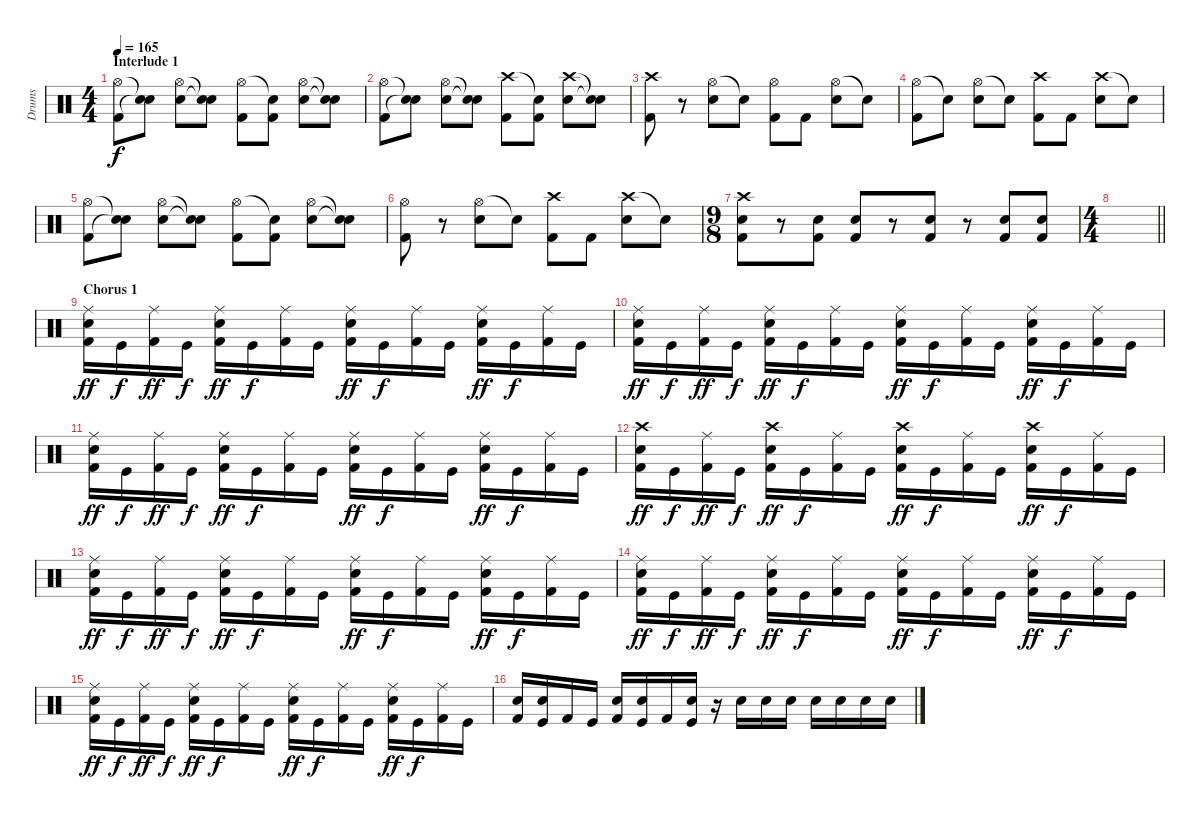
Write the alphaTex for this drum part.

\track ("Drums" "Drums") {instrument percussion}
\staff {score}
\articulation defaults
\ts (4 4)
\section ("" "Interlude 1")
\tempo 165
\clef neutral
\ks c
("Hi-Hat (open)" "Kick (hit) 2").8{dy f} ("Snare (hit)"{t} "Snare (hit)"{t}).8 ("Hi-Hat (open)" "Snare (hit) 2").8 ("Snare (hit)"{t} "Snare (hit)"{t}).8 ("Hi-Hat (open)" "Kick (hit) 2").8 ("Snare (hit)"{t} "Kick (hit) 2").8 ("Hi-Hat (open)" "Snare (hit) 2").8 ("Snare (hit)"{t} "Snare (hit)"{t}).8 |
("Hi-Hat (open)" "Kick (hit) 2").8 ("Snare (hit)"{t} "Snare (hit)"{t}).8 ("Hi-Hat (open)" "Snare (hit) 2").8 ("Snare (hit)"{t} "Snare (hit)"{t}).8 ("Crash high (hit)" "Kick (hit) 2").8 ("Snare (hit)"{t} "Kick (hit) 2").8 ("Crash high (hit)" "Snare (hit) 2").8 ("Snare (hit)"{t} "Snare (hit)"{t}).8 |
("Crash high (hit)" "Kick (hit) 2").8 r.8 ("Hi-Hat (open)" "Snare (hit) 2").8 "Snare (hit)"{t}.8 ("Hi-Hat (open)" "Kick (hit) 2").8 "Kick (hit) 2".8 ("Hi-Hat (open)" "Snare (hit) 2").8 "Snare (hit)"{t}.8 |
("Hi-Hat (open)" "Kick (hit) 2").8 "Snare (hit)"{t}.8 ("Hi-Hat (open)" "Snare (hit) 2").8 "Snare (hit)"{t}.8 ("Crash high (hit)" "Kick (hit) 2").8 "Kick (hit) 2".8 ("Crash high (hit)" "Snare (hit) 2").8 "Snare (hit)"{t}.8 |
("Hi-Hat (open)" "Kick (hit) 2").8 ("Snare (hit)"{t} "Snare (hit)"{t}).8 ("Hi-Hat (open)" "Snare (hit) 2").8 ("Snare (hit)"{t} "Snare (hit)"{t}).8 ("Hi-Hat (open)" "Kick (hit) 2").8 ("Snare (hit)"{t} "Kick (hit) 2").8 ("Hi-Hat (open)" "Snare (hit) 2").8 ("Snare (hit)"{t} "Snare (hit)"{t}).8 |
("Hi-Hat (open)" "Kick (hit) 2").8 r.8 ("Hi-Hat (open)" "Snare (hit) 2").8 "Snare (hit)"{t}.8 ("Crash high (hit)" "Kick (hit) 2").8 "Kick (hit) 2".8 ("Crash high (hit)" "Snare (hit) 2").8 "Snare (hit)"{t}.8 |
\ts (9 8)
("Crash high (hit)" "Snare (hit) 2" "Kick (hit) 2").8 r.8 ("Snare (hit) 2" "Kick (hit) 2").8 ("Snare (hit) 2" "Kick (hit) 2").8 r.8 ("Snare (hit) 2" "Kick (hit) 2").8 r.8 ("Snare (hit) 2" "Kick (hit) 2").8 ("Snare (hit) 2" "Kick (hit) 2").8 |
\ts (4 4)
\barLineRight lightlight
|
\section ("" "Chorus 1")
("Ride (middle)" "Snare (hit) 2" "Kick (hit) 2").16{dy ff} "Kick (hit)".16{dy f} ("Ride (middle)" "Kick (hit) 2").16{dy ff} "Kick (hit)".16{dy f} ("Ride (middle)" "Snare (hit) 2" "Kick (hit) 2").16{dy ff} "Kick (hit)".16{dy f} ("Ride (middle)" "Kick (hit) 2").16 "Kick (hit)".16 ("Ride (middle)" "Snare (hit) 2" "Kick (hit) 2").16{dy ff} "Kick (hit)".16{dy f} ("Ride (middle)" "Kick (hit) 2").16 "Kick (hit)".16 ("Ride (middle)" "Snare (hit) 2" "Kick (hit) 2").16{dy ff} "Kick (hit)".16{dy f} ("Ride (middle)" "Kick (hit) 2").16 "Kick (hit)".16 |
("Ride (middle)" "Snare (hit) 2" "Kick (hit) 2").16{dy ff} "Kick (hit)".16{dy f} ("Ride (middle)" "Kick (hit) 2").16{dy ff} "Kick (hit)".16{dy f} ("Ride (middle)" "Snare (hit) 2" "Kick (hit) 2").16{dy ff} "Kick (hit)".16{dy f} ("Ride (middle)" "Kick (hit) 2").16 "Kick (hit)".16 ("Ride (middle)" "Snare (hit) 2" "Kick (hit) 2").16{dy ff} "Kick (hit)".16{dy f} ("Ride (middle)" "Kick (hit) 2").16 "Kick (hit)".16 ("Ride (middle)" "Snare (hit) 2" "Kick (hit) 2").16{dy ff} "Kick (hit)".16{dy f} ("Ride (middle)" "Kick (hit) 2").16 "Kick (hit)".16 |
("Ride (middle)" "Snare (hit) 2" "Kick (hit) 2").16{dy ff} "Kick (hit)".16{dy f} ("Ride (middle)" "Kick (hit) 2").16{dy ff} "Kick (hit)".16{dy f} ("Ride (middle)" "Snare (hit) 2" "Kick (hit) 2").16{dy ff} "Kick (hit)".16{dy f} ("Ride (middle)" "Kick (hit) 2").16 "Kick (hit)".16 ("Ride (middle)" "Snare (hit) 2" "Kick (hit) 2").16{dy ff} "Kick (hit)".16{dy f} ("Ride (middle)" "Kick (hit) 2").16 "Kick (hit)".16 ("Ride (middle)" "Snare (hit) 2" "Kick (hit) 2").16{dy ff} "Kick (hit)".16{dy f} ("Ride (middle)" "Kick (hit) 2").16 "Kick (hit)".16 |
("Crash high (hit)" "Snare (hit) 2" "Kick (hit) 2").16{dy ff} "Kick (hit)".16{dy f} ("Ride (middle)" "Kick (hit) 2").16{dy ff} "Kick (hit)".16{dy f} ("Crash high (hit)" "Snare (hit) 2" "Kick (hit) 2").16{dy ff} "Kick (hit)".16{dy f} ("Ride (middle)" "Kick (hit) 2").16 "Kick (hit)".16 ("Crash high (hit)" "Snare (hit) 2" "Kick (hit) 2").16{dy ff} "Kick (hit)".16{dy f} ("Ride (middle)" "Kick (hit) 2").16 "Kick (hit)".16 ("Crash high (hit)" "Snare (hit) 2" "Kick (hit) 2").16{dy ff} "Kick (hit)".16{dy f} ("Ride (middle)" "Kick (hit) 2").16 "Kick (hit)".16 |
("Ride (middle)" "Snare (hit) 2" "Kick (hit) 2").16{dy ff} "Kick (hit)".16{dy f} ("Ride (middle)" "Kick (hit) 2").16{dy ff} "Kick (hit)".16{dy f} ("Ride (middle)" "Snare (hit) 2" "Kick (hit) 2").16{dy ff} "Kick (hit)".16{dy f} ("Ride (middle)" "Kick (hit) 2").16 "Kick (hit)".16 ("Ride (middle)" "Snare (hit) 2" "Kick (hit) 2").16{dy ff} "Kick (hit)".16{dy f} ("Ride (middle)" "Kick (hit) 2").16 "Kick (hit)".16 ("Ride (middle)" "Snare (hit) 2" "Kick (hit) 2").16{dy ff} "Kick (hit)".16{dy f} ("Ride (middle)" "Kick (hit) 2").16 "Kick (hit)".16 |
("Ride (middle)" "Snare (hit) 2" "Kick (hit) 2").16{dy ff} "Kick (hit)".16{dy f} ("Ride (middle)" "Kick (hit) 2").16{dy ff} "Kick (hit)".16{dy f} ("Ride (middle)" "Snare (hit) 2" "Kick (hit) 2").16{dy ff} "Kick (hit)".16{dy f} ("Ride (middle)" "Kick (hit) 2").16 "Kick (hit)".16 ("Ride (middle)" "Snare (hit) 2" "Kick (hit) 2").16{dy ff} "Kick (hit)".16{dy f} ("Ride (middle)" "Kick (hit) 2").16 "Kick (hit)".16 ("Ride (middle)" "Snare (hit) 2" "Kick (hit) 2").16{dy ff} "Kick (hit)".16{dy f} ("Ride (middle)" "Kick (hit) 2").16 "Kick (hit)".16 |
("Ride (middle)" "Snare (hit) 2" "Kick (hit) 2").16{dy ff} "Kick (hit)".16{dy f} ("Ride (middle)" "Kick (hit) 2").16{dy ff} "Kick (hit)".16{dy f} ("Ride (middle)" "Snare (hit) 2" "Kick (hit) 2").16{dy ff} "Kick (hit)".16{dy f} ("Ride (middle)" "Kick (hit) 2").16 "Kick (hit)".16 ("Ride (middle)" "Snare (hit) 2" "Kick (hit) 2").16{dy ff} "Kick (hit)".16{dy f} ("Ride (middle)" "Kick (hit) 2").16 "Kick (hit)".16 ("Ride (middle)" "Snare (hit) 2" "Kick (hit) 2").16{dy ff} "Kick (hit)".16{dy f} ("Ride (middle)" "Kick (hit) 2").16 "Kick (hit)".16 |
("Snare (hit) 2" "Kick (hit) 2").16 ("Snare (hit) 2" "Kick (hit)").16 "Kick (hit) 2".16 "Kick (hit)".16 ("Snare (hit) 2" "Kick (hit) 2").16 ("Snare (hit) 2" "Kick (hit)").16 "Kick (hit) 2".16 ("Snare (hit) 2" "Kick (hit)").16 r.16 "Snare (hit) 2".16 "Snare (hit) 2".16 "Snare (hit) 2".16 "Snare (hit) 2".16 "Snare (hit) 2".16 "Snare (hit) 2".16 "Snare (hit) 2".16
